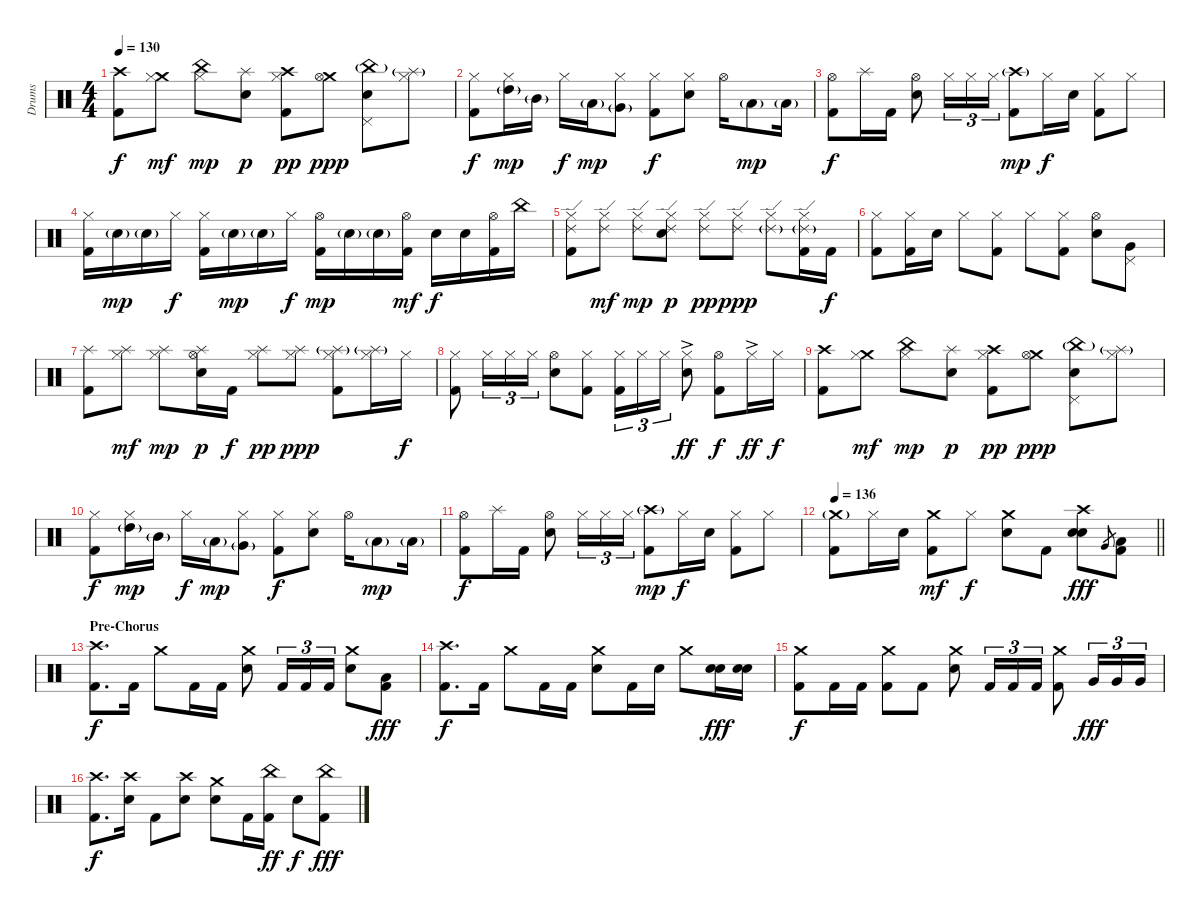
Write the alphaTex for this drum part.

\track ("Drums" "Drums") {instrument percussion}
\staff {score}
\articulation defaults
\ts (4 4)
\tempo 130
\clef neutral
\ks c
("Crash high (hit)" "Kick (hit) 2").8{dy f} ("Crash medium (hit)" "Hi-Hat (closed)").8{dy mf} ("China (hit)" "Hi-Hat (closed)").8{dy mp} ("Splash (hit)" "Electric Snare (hit)").8{dy p} ("Crash high (hit)" "Hi-Hat (closed)" "Kick (hit) 2").8{dy pp} ("Crash medium (hit)" "Hi-Hat (open)").8{dy ppp} ("China (hit)"{g} "Pedal Hi-Hat (hit)" "Electric Snare (hit)").8 ("Splash (hit)"{g} "Hi-Hat (closed)").8 |
("Hi-Hat (closed)" "Kick (hit) 2").8{dy f} ("Hi-Hat (closed)" "High Tom (hit)"{g}).16{dy mp} "Mid Tom (hit)"{g}.16 "Hi-Hat (closed)".16{dy f} "Low Tom (hit)"{g}.16{dy mp} ("Hi-Hat (closed)" "Very Low Tom (hit)"{g}).8 ("Hi-Hat (closed)" "Kick (hit) 2").8{dy f} ("Hi-Hat (closed)" "Electric Snare (hit)").8 "Hi-Hat (open)".16 "Low Floor Tom (hit)"{g}.8{dy mp} "Low Floor Tom (hit)"{g}.16 |
("Hi-Hat (open)" "Kick (hit) 2").8{dy f} "Splash (hit)".16 "Kick (hit) 2".16 ("Hi-Hat (open)" "Electric Snare (hit)").8 "Hi-Hat (closed)".16{tu (3 2)} "Hi-Hat (closed)".16{tu (3 2)} "Hi-Hat (closed)".16{tu (3 2)} ("Crash high (hit)"{g} "Kick (hit) 2").8{dy mp} "Hi-Hat (closed)".16{dy f} "Electric Snare (hit)".16 ("Hi-Hat (closed)" "Kick (hit) 2").8 "Hi-Hat (closed)".8 |
("Hi-Hat (closed)" "Kick (hit) 2").16 "Electric Snare (hit)"{g}.16{dy mp} "Electric Snare (hit)"{g}.16 "Hi-Hat (closed)".16{dy f} ("Hi-Hat (closed)" "Kick (hit) 2").16 "Electric Snare (hit)"{g}.16{dy mp} "Electric Snare (hit)"{g}.16 "Hi-Hat (closed)".16{dy f} ("Hi-Hat (open)" "Kick (hit) 2").16{dy mp} "Electric Snare (hit)"{g}.16 "Electric Snare (hit)"{g}.16 ("Hi-Hat (open)" "Kick (hit) 2").16{dy mf} "Electric Snare (hit)".16{dy f} "Electric Snare (hit)".16 ("Hi-Hat (open)" "Kick (hit) 2").16 "China (hit)".16 |
("Ride (edge) 2" "Hi-Hat (closed)" "Kick (hit) 2").8 ("Ride (edge) 2" "Hi-Hat (closed)").8{dy mf} ("Ride (edge) 2" "Hi-Hat (closed)").8{dy mp} ("Ride (edge) 2" "Hi-Hat (closed)" "Electric Snare (hit)").8{dy p} ("Ride (edge) 2" "Hi-Hat (closed)").8{dy pp} ("Ride (edge) 2" "Hi-Hat (closed)").8{dy ppp} ("Ride (edge) 2"{g} "Hi-Hat (closed)").8 ("Ride (edge) 2"{g} "Hi-Hat (closed)" "Kick (hit) 2").16 "Kick (hit) 2".16{dy f} |
("Hi-Hat (closed)" "Kick (hit) 2").8 ("Hi-Hat (closed)" "Kick (hit) 2").16 "Electric Snare (hit)".16 "Hi-Hat (closed)".8 ("Hi-Hat (closed)" "Kick (hit) 2").8 "Hi-Hat (closed)".8 ("Hi-Hat (closed)" "Kick (hit) 2").8 ("Hi-Hat (open)" "Electric Snare (hit)").8 ("Pedal Hi-Hat (hit)" "Very Low Tom (hit)").8 |
("Splash (hit)" "Kick (hit) 2").8 ("Splash (hit)" "Hi-Hat (closed)").8{dy mf} ("Splash (hit)" "Hi-Hat (closed)").8{dy mp} ("Splash (hit)" "Hi-Hat (open)" "Electric Snare (hit)").16{dy p} "Kick (hit) 2".16{dy f} ("Splash (hit)" "Hi-Hat (closed)").8{dy pp} ("Splash (hit)" "Hi-Hat (closed)").8{dy ppp} ("Splash (hit)"{g} "Hi-Hat (closed)" "Kick (hit) 2").8 ("Splash (hit)"{g} "Hi-Hat (closed)").16 "Hi-Hat (closed)".16{dy f} |
("Hi-Hat (closed)" "Kick (hit) 2").8 "Hi-Hat (closed)".16{tu (3 2)} "Hi-Hat (closed)".16{tu (3 2)} "Hi-Hat (closed)".16{tu (3 2)} ("Hi-Hat (open)" "Electric Snare (hit)").8 ("Hi-Hat (closed)" "Kick (hit) 2").8 ("Hi-Hat (closed)" "Kick (hit) 2").16{tu (3 2)} "Hi-Hat (closed)".16{tu (3 2)} "Hi-Hat (closed)".16{tu (3 2)} ("Hi-Hat (closed)"{ac} "Electric Snare (hit)").8{dy ff} ("Hi-Hat (open)" "Kick (hit) 2").8{dy f} "Hi-Hat (closed)"{ac}.16{dy ff} "Hi-Hat (closed)".16{dy f} |
("Crash high (hit)" "Kick (hit) 2").8 ("Crash medium (hit)" "Hi-Hat (closed)").8{dy mf} ("China (hit)" "Hi-Hat (closed)").8{dy mp} ("Splash (hit)" "Electric Snare (hit)").8{dy p} ("Crash high (hit)" "Hi-Hat (closed)" "Kick (hit) 2").8{dy pp} ("Crash medium (hit)" "Hi-Hat (open)").8{dy ppp} ("China (hit)"{g} "Pedal Hi-Hat (hit)" "Electric Snare (hit)").8 ("Splash (hit)"{g} "Hi-Hat (closed)").8 |
("Hi-Hat (closed)" "Kick (hit) 2").8{dy f} ("Hi-Hat (closed)" "High Tom (hit)"{g}).16{dy mp} "Mid Tom (hit)"{g}.16 "Hi-Hat (closed)".16{dy f} "Low Tom (hit)"{g}.16{dy mp} ("Hi-Hat (closed)" "Very Low Tom (hit)"{g}).8 ("Hi-Hat (closed)" "Kick (hit) 2").8{dy f} ("Hi-Hat (closed)" "Electric Snare (hit)").8 "Hi-Hat (open)".16 "Low Floor Tom (hit)"{g}.8{dy mp} "Low Floor Tom (hit)"{g}.16 |
("Hi-Hat (open)" "Kick (hit) 2").8{dy f} "Splash (hit)".16 "Kick (hit) 2".16 ("Hi-Hat (open)" "Electric Snare (hit)").8 "Hi-Hat (closed)".16{tu (3 2)} "Hi-Hat (closed)".16{tu (3 2)} "Hi-Hat (closed)".16{tu (3 2)} ("Crash high (hit)"{g} "Kick (hit) 2").8{dy mp} "Hi-Hat (closed)".16{dy f} "Electric Snare (hit)".16 ("Hi-Hat (closed)" "Kick (hit) 2").8 "Hi-Hat (closed)".8 |
\tempo 136
\barLineRight lightlight
("Crash medium (hit)"{g} "Kick (hit) 2").8 "Hi-Hat (closed)".16 "Electric Snare (hit)".16 ("Crash medium (hit)" "Kick (hit) 2").8{dy mf} "Hi-Hat (closed)".8{dy f} ("Crash medium (hit)" "Electric Snare (hit)").8 "Kick (hit) 2".8 ("Crash high (hit)" "Snare (hit) 2" "Electric Snare (hit)").8{dy fff} "Very Low Tom (hit)".8{gr} ("Low Floor Tom (hit)" "Kick (hit) 2").8 |
\section ("" "Pre-Chorus")
("Crash high (hit)" "Kick (hit) 2").8{d dy f} "Kick (hit) 2".16 "Crash medium (hit)".8 "Kick (hit) 2".16 "Kick (hit) 2".16 ("Crash medium (hit)" "Electric Snare (hit)").8 "Kick (hit) 2".16{tu (3 2)} "Kick (hit) 2".16{tu (3 2)} "Kick (hit) 2".16{tu (3 2)} ("Crash medium (hit)" "Electric Snare (hit)").8 ("Low Floor Tom (hit)" "Kick (hit) 2").8{dy fff} |
("Crash high (hit)" "Kick (hit) 2").8{d dy f} "Kick (hit) 2".16 "Crash medium (hit)".8 "Kick (hit) 2".16 "Kick (hit) 2".16 ("Crash medium (hit)" "Electric Snare (hit)").8 "Kick (hit) 2".16 "Electric Snare (hit)".16 "Crash medium (hit)".8 ("Snare (hit) 2" "Electric Snare (hit)").16{dy fff} ("Snare (hit) 2" "Electric Snare (hit)").16 |
("Crash medium (hit)" "Kick (hit) 2").8{dy f} "Kick (hit) 2".16 "Kick (hit) 2".16 ("Crash medium (hit)" "Kick (hit) 2").8 "Kick (hit) 2".8 ("Crash medium (hit)" "Electric Snare (hit)").8 "Kick (hit) 2".16{tu (3 2)} "Kick (hit) 2".16{tu (3 2)} "Kick (hit) 2".16{tu (3 2)} ("Crash medium (hit)" "Kick (hit) 2").8 "Very Low Tom (hit)".16{tu (3 2) dy fff} "Very Low Tom (hit)".16{tu (3 2)} "Very Low Tom (hit)".16{tu (3 2)} |
("Crash high (hit)" "Kick (hit) 2").8{d dy f} ("Crash high (hit)" "Electric Snare (hit)").16 "Kick (hit) 2".8 ("Crash high (hit)" "Electric Snare (hit)").8 ("Crash medium (hit)" "Electric Snare (hit)").8 "Kick (hit) 2".16 ("China (hit)" "Kick (hit) 2").16{dy ff} "Electric Snare (hit)".8{dy f} ("China (hit)" "Kick (hit) 2").8{dy fff}
